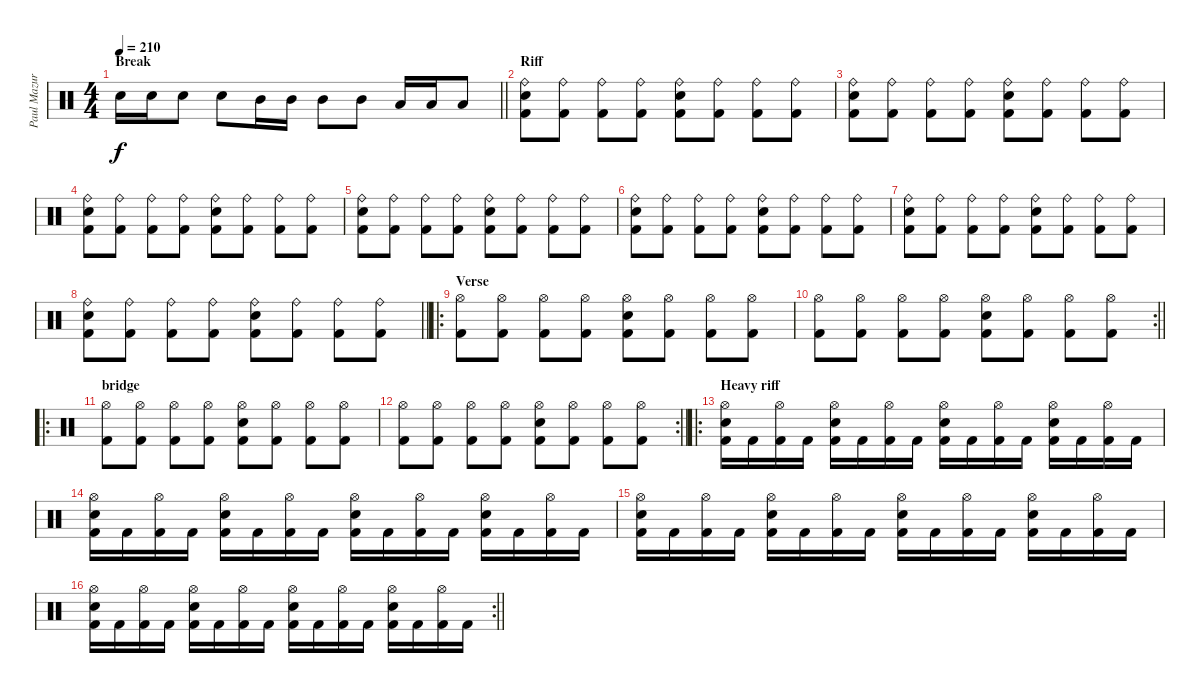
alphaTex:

\track ("Paul Mazurkiewicz" "Paul Mazur") {instrument percussion}
\staff {score}
\articulation defaults
\ts (4 4)
\section ("" "Break")
\tempo 210
\clef neutral
\barLineRight lightlight
\ks c "Snare (hit) 2".16{dy f} "Snare (hit) 2".16 "Snare (hit) 2".8 "Snare (hit) 2".8 "Mid Tom (hit)".16 "Mid Tom (hit)".16 "Mid Tom (hit)".8 "Mid Tom (hit)".8 "Low Tom (hit)".16 "Low Tom (hit)".16 "Low Tom (hit)".8
|
\section ("" "Riff")
("Ride (bell)" "Snare (hit) 2" "Kick (hit) 2").8 ("Ride (bell)" "Kick (hit) 2").8 ("Ride (bell)" "Kick (hit) 2").8 ("Ride (bell)" "Kick (hit) 2").8 ("Ride (bell)" "Snare (hit) 2" "Kick (hit) 2").8 ("Ride (bell)" "Kick (hit) 2").8 ("Ride (bell)" "Kick (hit) 2").8 ("Ride (bell)" "Kick (hit) 2").8 |
("Ride (bell)" "Snare (hit) 2" "Kick (hit) 2").8 ("Ride (bell)" "Kick (hit) 2").8 ("Ride (bell)" "Kick (hit) 2").8 ("Ride (bell)" "Kick (hit) 2").8 ("Ride (bell)" "Snare (hit) 2" "Kick (hit) 2").8 ("Ride (bell)" "Kick (hit) 2").8 ("Ride (bell)" "Kick (hit) 2").8 ("Ride (bell)" "Kick (hit) 2").8 |
("Ride (bell)" "Snare (hit) 2" "Kick (hit) 2").8 ("Ride (bell)" "Kick (hit) 2").8 ("Ride (bell)" "Kick (hit) 2").8 ("Ride (bell)" "Kick (hit) 2").8 ("Ride (bell)" "Snare (hit) 2" "Kick (hit) 2").8 ("Ride (bell)" "Kick (hit) 2").8 ("Ride (bell)" "Kick (hit) 2").8 ("Ride (bell)" "Kick (hit) 2").8 |
("Ride (bell)" "Snare (hit) 2" "Kick (hit) 2").8 ("Ride (bell)" "Kick (hit) 2").8 ("Ride (bell)" "Kick (hit) 2").8 ("Ride (bell)" "Kick (hit) 2").8 ("Ride (bell)" "Snare (hit) 2" "Kick (hit) 2").8 ("Ride (bell)" "Kick (hit) 2").8 ("Ride (bell)" "Kick (hit) 2").8 ("Ride (bell)" "Kick (hit) 2").8 |
("Ride (bell)" "Snare (hit) 2" "Kick (hit) 2").8 ("Ride (bell)" "Kick (hit) 2").8 ("Ride (bell)" "Kick (hit) 2").8 ("Ride (bell)" "Kick (hit) 2").8 ("Ride (bell)" "Snare (hit) 2" "Kick (hit) 2").8 ("Ride (bell)" "Kick (hit) 2").8 ("Ride (bell)" "Kick (hit) 2").8 ("Ride (bell)" "Kick (hit) 2").8 |
("Ride (bell)" "Snare (hit) 2" "Kick (hit) 2").8 ("Ride (bell)" "Kick (hit) 2").8 ("Ride (bell)" "Kick (hit) 2").8 ("Ride (bell)" "Kick (hit) 2").8 ("Ride (bell)" "Snare (hit) 2" "Kick (hit) 2").8 ("Ride (bell)" "Kick (hit) 2").8 ("Ride (bell)" "Kick (hit) 2").8 ("Ride (bell)" "Kick (hit) 2").8 |
\barLineRight lightlight
("Ride (bell)" "Snare (hit) 2" "Kick (hit) 2").8 ("Ride (bell)" "Kick (hit) 2").8 ("Ride (bell)" "Kick (hit) 2").8 ("Ride (bell)" "Kick (hit) 2").8 ("Ride (bell)" "Snare (hit) 2" "Kick (hit) 2").8 ("Ride (bell)" "Kick (hit) 2").8 ("Ride (bell)" "Kick (hit) 2").8 ("Ride (bell)" "Kick (hit) 2").8 |
\ro
\section ("" "Verse")
("Hi-Hat (open)" "Kick (hit) 2").8 ("Hi-Hat (open)" "Kick (hit) 2").8 ("Hi-Hat (open)" "Kick (hit) 2").8 ("Hi-Hat (open)" "Kick (hit) 2").8 ("Hi-Hat (open)" "Snare (hit) 2" "Kick (hit) 2").8 ("Hi-Hat (open)" "Kick (hit) 2").8 ("Hi-Hat (open)" "Kick (hit) 2").8 ("Hi-Hat (open)" "Kick (hit) 2").8 |
\rc 2
\barLineRight lightlight
("Hi-Hat (open)" "Kick (hit) 2").8 ("Hi-Hat (open)" "Kick (hit) 2").8 ("Hi-Hat (open)" "Kick (hit) 2").8 ("Hi-Hat (open)" "Kick (hit) 2").8 ("Hi-Hat (open)" "Snare (hit) 2" "Kick (hit) 2").8 ("Hi-Hat (open)" "Kick (hit) 2").8 ("Hi-Hat (open)" "Kick (hit) 2").8 ("Hi-Hat (open)" "Kick (hit) 2").8 |
\ro
\section ("" "bridge")
("Hi-Hat (open)" "Kick (hit) 2").8 ("Hi-Hat (open)" "Kick (hit) 2").8 ("Hi-Hat (open)" "Kick (hit) 2").8 ("Hi-Hat (open)" "Kick (hit) 2").8 ("Hi-Hat (open)" "Snare (hit) 2" "Kick (hit) 2").8 ("Hi-Hat (open)" "Kick (hit) 2").8 ("Hi-Hat (open)" "Kick (hit) 2").8 ("Hi-Hat (open)" "Kick (hit) 2").8 |
\rc 2
\barLineRight lightlight
("Hi-Hat (open)" "Kick (hit) 2").8 ("Hi-Hat (open)" "Kick (hit) 2").8 ("Hi-Hat (open)" "Kick (hit) 2").8 ("Hi-Hat (open)" "Kick (hit) 2").8 ("Hi-Hat (open)" "Snare (hit) 2" "Kick (hit) 2").8 ("Hi-Hat (open)" "Kick (hit) 2").8 ("Hi-Hat (open)" "Kick (hit) 2").8 ("Hi-Hat (open)" "Kick (hit) 2").8 |
\ro
\section ("" "Heavy riff")
("Hi-Hat (open)" "Snare (hit) 2" "Kick (hit) 2").16 "Kick (hit) 2".16 ("Hi-Hat (open)" "Kick (hit) 2").16 "Kick (hit) 2".16 ("Hi-Hat (open)" "Snare (hit) 2" "Kick (hit) 2").16 "Kick (hit) 2".16 ("Hi-Hat (open)" "Kick (hit) 2").16 "Kick (hit) 2".16 ("Hi-Hat (open)" "Snare (hit) 2" "Kick (hit) 2").16 "Kick (hit) 2".16 ("Hi-Hat (open)" "Kick (hit) 2").16 "Kick (hit) 2".16 ("Hi-Hat (open)" "Snare (hit) 2" "Kick (hit) 2").16 "Kick (hit) 2".16 ("Hi-Hat (open)" "Kick (hit) 2").16 "Kick (hit) 2".16 |
("Hi-Hat (open)" "Snare (hit) 2" "Kick (hit) 2").16 "Kick (hit) 2".16 ("Hi-Hat (open)" "Kick (hit) 2").16 "Kick (hit) 2".16 ("Hi-Hat (open)" "Snare (hit) 2" "Kick (hit) 2").16 "Kick (hit) 2".16 ("Hi-Hat (open)" "Kick (hit) 2").16 "Kick (hit) 2".16 ("Hi-Hat (open)" "Snare (hit) 2" "Kick (hit) 2").16 "Kick (hit) 2".16 ("Hi-Hat (open)" "Kick (hit) 2").16 "Kick (hit) 2".16 ("Hi-Hat (open)" "Snare (hit) 2" "Kick (hit) 2").16 "Kick (hit) 2".16 ("Hi-Hat (open)" "Kick (hit) 2").16 "Kick (hit) 2".16 |
("Hi-Hat (open)" "Snare (hit) 2" "Kick (hit) 2").16 "Kick (hit) 2".16 ("Hi-Hat (open)" "Kick (hit) 2").16 "Kick (hit) 2".16 ("Hi-Hat (open)" "Snare (hit) 2" "Kick (hit) 2").16 "Kick (hit) 2".16 ("Hi-Hat (open)" "Kick (hit) 2").16 "Kick (hit) 2".16 ("Hi-Hat (open)" "Snare (hit) 2" "Kick (hit) 2").16 "Kick (hit) 2".16 ("Hi-Hat (open)" "Kick (hit) 2").16 "Kick (hit) 2".16 ("Hi-Hat (open)" "Snare (hit) 2" "Kick (hit) 2").16 "Kick (hit) 2".16 ("Hi-Hat (open)" "Kick (hit) 2").16 "Kick (hit) 2".16 |
\rc 2
\barLineRight lightlight
("Hi-Hat (open)" "Snare (hit) 2" "Kick (hit) 2").16 "Kick (hit) 2".16 ("Hi-Hat (open)" "Kick (hit) 2").16 "Kick (hit) 2".16 ("Hi-Hat (open)" "Snare (hit) 2" "Kick (hit) 2").16 "Kick (hit) 2".16 ("Hi-Hat (open)" "Kick (hit) 2").16 "Kick (hit) 2".16 ("Hi-Hat (open)" "Snare (hit) 2" "Kick (hit) 2").16 "Kick (hit) 2".16 ("Hi-Hat (open)" "Kick (hit) 2").16 "Kick (hit) 2".16 ("Hi-Hat (open)" "Snare (hit) 2" "Kick (hit) 2").16 "Kick (hit) 2".16 ("Hi-Hat (open)" "Kick (hit) 2").16 "Kick (hit) 2".16
